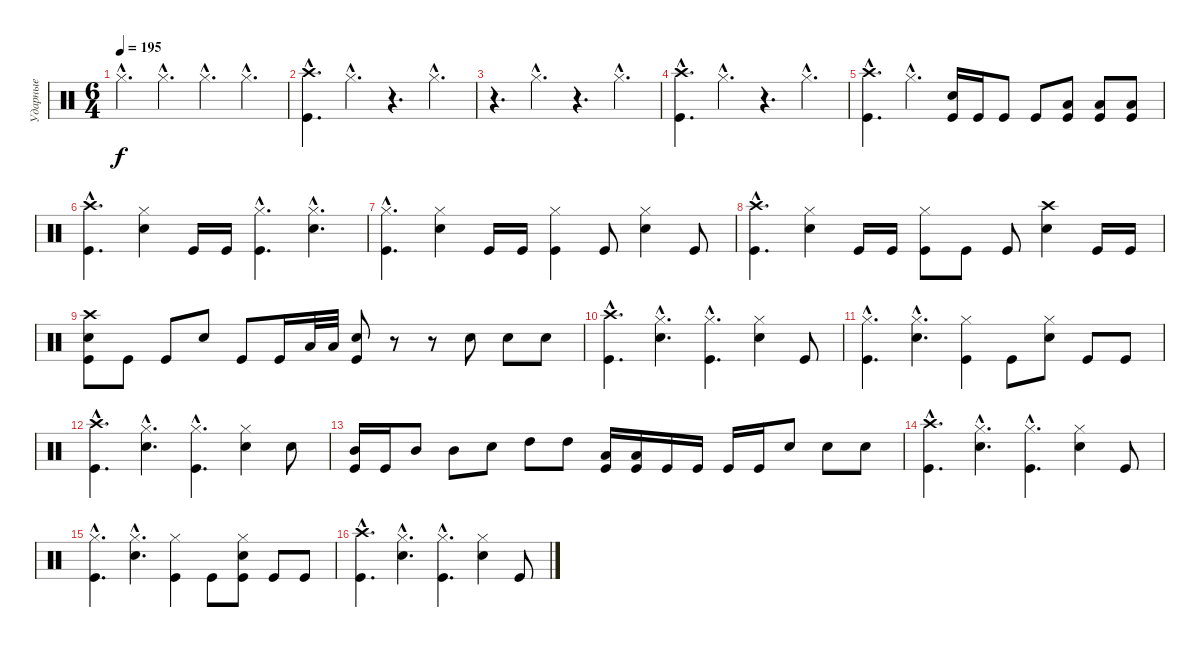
\track ("Ударные" "Ударные") {instrument percussion}
\staff {score}
\articulation defaults
\ts (6 4)
\tempo 195
\clef neutral
\ks c "Hi-Hat (closed)"{hac}.4{d dy f} "Hi-Hat (closed)"{hac}.4{d} "Hi-Hat (closed)"{hac}.4{d} "Hi-Hat (closed)"{hac}.4{d}
|
("Crash high (hit)"{hac} "Kick (hit)"{hac}).4{d} "Hi-Hat (closed)"{hac}.4{d} r.4{d} "Hi-Hat (closed)"{hac}.4{d} |
r.4{d} "Hi-Hat (closed)"{hac}.4{d} r.4{d} "Hi-Hat (closed)"{hac}.4{d} |
("Crash high (hit)"{hac} "Kick (hit)"{hac}).4{d} "Hi-Hat (closed)"{hac}.4{d} r.4{d} "Hi-Hat (closed)"{hac}.4{d} |
("Crash high (hit)"{hac} "Kick (hit)"{hac}).4{d} "Hi-Hat (closed)"{hac}.4{d} ("Electric Snare (hit)" "Kick (hit)").16 "Kick (hit)".16 "Kick (hit)".8 "Kick (hit)".8 ("Low Tom (hit)" "Kick (hit)").8 ("Low Tom (hit)" "Kick (hit)").8 ("Low Tom (hit)" "Kick (hit)").8 |
("Crash high (hit)"{hac} "Kick (hit)"{hac}).4{d} ("Hi-Hat (closed)" "Electric Snare (hit)").4 "Kick (hit)".16 "Kick (hit)".16 ("Hi-Hat (closed)"{hac} "Kick (hit)"{hac}).4{d} ("Hi-Hat (closed)"{hac} "Electric Snare (hit)"{hac}).4{d} |
("Hi-Hat (closed)"{hac} "Kick (hit)"{hac}).4{d} ("Hi-Hat (closed)" "Electric Snare (hit)").4 "Kick (hit)".16 "Kick (hit)".16 ("Hi-Hat (closed)" "Kick (hit)").4 "Kick (hit)".8 ("Hi-Hat (closed)" "Electric Snare (hit)").4 "Kick (hit)".8 |
("Crash high (hit)"{hac} "Kick (hit)"{hac}).4{d} ("Hi-Hat (closed)" "Electric Snare (hit)").4 "Kick (hit)".16 "Kick (hit)".16 ("Hi-Hat (closed)" "Kick (hit)").8 "Kick (hit)".8 "Kick (hit)".8 ("Crash high (hit)" "Electric Snare (hit)").4 "Kick (hit)".16 "Kick (hit)".16 |
("Crash high (hit)" "Electric Snare (hit)" "Kick (hit)").8 "Kick (hit)".8 "Kick (hit)".8 "Electric Snare (hit)".8 "Kick (hit)".8 "Kick (hit)".16 "Low Tom (hit)".32 "Low Tom (hit)".32 ("Electric Snare (hit)" "Kick (hit)").8 r.8 r.8 "Electric Snare (hit)".8 "Electric Snare (hit)".8 "Electric Snare (hit)".8 |
("Crash high (hit)"{hac} "Kick (hit)"{hac}).4{d} ("Hi-Hat (closed)"{hac} "Electric Snare (hit)"{hac}).4{d} ("Hi-Hat (closed)"{hac} "Kick (hit)"{hac}).4{d} ("Hi-Hat (closed)" "Electric Snare (hit)").4 "Kick (hit)".8 |
("Hi-Hat (closed)"{hac} "Kick (hit)"{hac}).4{d} ("Hi-Hat (closed)"{hac} "Electric Snare (hit)"{hac}).4{d} ("Hi-Hat (closed)" "Kick (hit)").4 "Kick (hit)".8 ("Hi-Hat (closed)" "Electric Snare (hit)").8 "Kick (hit)".8 "Kick (hit)".8 |
("Crash high (hit)"{hac} "Kick (hit)"{hac}).4{d} ("Hi-Hat (closed)"{hac} "Electric Snare (hit)"{hac}).4{d} ("Hi-Hat (closed)"{hac} "Kick (hit)"{hac}).4{d} ("Hi-Hat (closed)" "Electric Snare (hit)").4 "Electric Snare (hit)".8 |
("Mid Tom (hit)" "Kick (hit)").16 "Kick (hit)".16 "Mid Tom (hit)".8 "Mid Tom (hit)".8 "Electric Snare (hit)".8 "High Tom (hit)".8 "High Tom (hit)".8 ("Low Tom (hit)" "Kick (hit)").16 ("Low Tom (hit)" "Kick (hit)").16 "Kick (hit)".16 "Kick (hit)".16 "Kick (hit)".16 "Kick (hit)".16 "Electric Snare (hit)".8 "Electric Snare (hit)".8 "Electric Snare (hit)".8 |
("Crash high (hit)"{hac} "Kick (hit)"{hac}).4{d} ("Hi-Hat (closed)"{hac} "Electric Snare (hit)"{hac}).4{d} ("Hi-Hat (closed)"{hac} "Kick (hit)"{hac}).4{d} ("Hi-Hat (closed)" "Electric Snare (hit)").4 "Kick (hit)".8 |
("Hi-Hat (closed)"{hac} "Kick (hit)"{hac}).4{d} ("Hi-Hat (closed)"{hac} "Electric Snare (hit)"{hac}).4{d} ("Hi-Hat (closed)" "Kick (hit)").4 "Kick (hit)".8 ("Hi-Hat (closed)" "Electric Snare (hit)" "Kick (hit)").8 "Kick (hit)".8 "Kick (hit)".8 |
("Crash high (hit)"{hac} "Kick (hit)"{hac}).4{d} ("Hi-Hat (closed)"{hac} "Electric Snare (hit)"{hac}).4{d} ("Hi-Hat (closed)"{hac} "Kick (hit)"{hac}).4{d} ("Hi-Hat (closed)" "Electric Snare (hit)").4 "Kick (hit)".8
